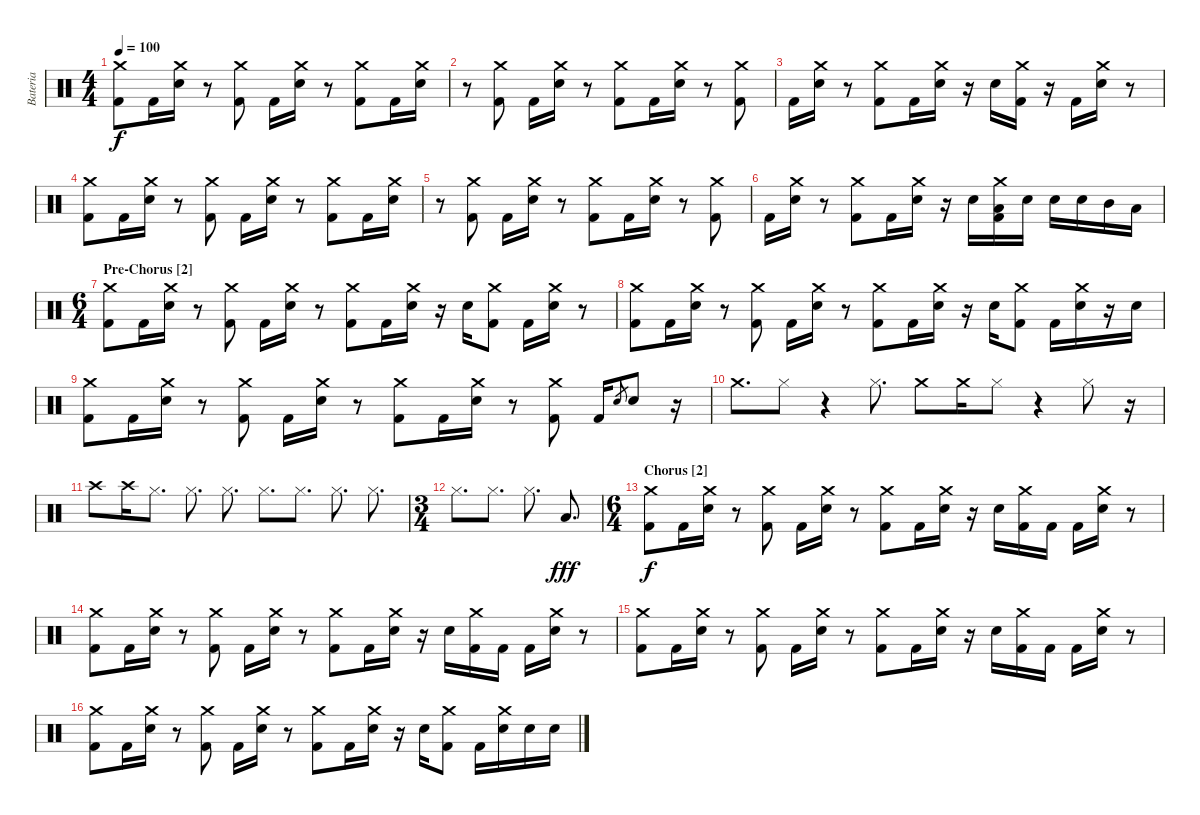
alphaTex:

\track ("Bateria" "Bateria") {instrument percussion}
\staff {score}
\articulation defaults
\ts (4 4)
\tempo 100
\clef neutral
\ks c
("Crash medium (hit)" "Kick (hit) 2").8{dy f} "Kick (hit) 2".16 ("Crash medium (hit)" "Electric Snare (hit)").16 r.8 ("Crash medium (hit)" "Kick (hit) 2").8 "Kick (hit) 2".16 ("Crash medium (hit)" "Electric Snare (hit)").16 r.8 ("Crash medium (hit)" "Kick (hit) 2").8 "Kick (hit) 2".16 ("Crash medium (hit)" "Electric Snare (hit)").16 |
r.8 ("Crash medium (hit)" "Kick (hit) 2").8 "Kick (hit) 2".16 ("Crash medium (hit)" "Electric Snare (hit)").16 r.8 ("Crash medium (hit)" "Kick (hit) 2").8 "Kick (hit) 2".16 ("Crash medium (hit)" "Electric Snare (hit)").16 r.8 ("Crash medium (hit)" "Kick (hit) 2").8 |
"Kick (hit) 2".16 ("Crash medium (hit)" "Electric Snare (hit)").16 r.8 ("Crash medium (hit)" "Kick (hit) 2").8 "Kick (hit) 2".16 ("Crash medium (hit)" "Electric Snare (hit)").16 r.16 "Electric Snare (hit)".16 ("Crash medium (hit)" "Kick (hit) 2").16 r.16 "Kick (hit) 2".16 ("Crash medium (hit)" "Electric Snare (hit)").16 r.8 |
("Crash medium (hit)" "Kick (hit) 2").8 "Kick (hit) 2".16 ("Crash medium (hit)" "Electric Snare (hit)").16 r.8 ("Crash medium (hit)" "Kick (hit) 2").8 "Kick (hit) 2".16 ("Crash medium (hit)" "Electric Snare (hit)").16 r.8 ("Crash medium (hit)" "Kick (hit) 2").8 "Kick (hit) 2".16 ("Crash medium (hit)" "Electric Snare (hit)").16 |
r.8 ("Crash medium (hit)" "Kick (hit) 2").8 "Kick (hit) 2".16 ("Crash medium (hit)" "Electric Snare (hit)").16 r.8 ("Crash medium (hit)" "Kick (hit) 2").8 "Kick (hit) 2".16 ("Crash medium (hit)" "Electric Snare (hit)").16 r.8 ("Crash medium (hit)" "Kick (hit) 2").8 |
"Kick (hit) 2".16 ("Crash medium (hit)" "Electric Snare (hit)").16 r.8 ("Crash medium (hit)" "Kick (hit) 2").8 "Kick (hit) 2".16 ("Crash medium (hit)" "Electric Snare (hit)").16 r.16 "Electric Snare (hit)".16 ("Crash medium (hit)" "Low Tom (hit)" "Kick (hit) 2").16 "Electric Snare (hit)".16 "Electric Snare (hit)".16 "Electric Snare (hit)".16 "Mid Tom (hit)".16 "Low Tom (hit)".16 |
\ts (6 4)
\section ("" "Pre-Chorus [2]")
("Crash medium (hit)" "Kick (hit) 2").8 "Kick (hit) 2".16 ("Crash medium (hit)" "Electric Snare (hit)").16 r.8 ("Crash medium (hit)" "Kick (hit) 2").8 "Kick (hit) 2".16 ("Crash medium (hit)" "Electric Snare (hit)").16 r.8 ("Crash medium (hit)" "Kick (hit) 2").8 "Kick (hit) 2".16 ("Crash medium (hit)" "Electric Snare (hit)").16 r.16 "Electric Snare (hit)".16 ("Crash medium (hit)" "Kick (hit) 2").8 "Kick (hit) 2".16 ("Crash medium (hit)" "Electric Snare (hit)").16 r.8 |
("Crash medium (hit)" "Kick (hit) 2").8 "Kick (hit) 2".16 ("Crash medium (hit)" "Electric Snare (hit)").16 r.8 ("Crash medium (hit)" "Kick (hit) 2").8 "Kick (hit) 2".16 ("Crash medium (hit)" "Electric Snare (hit)").16 r.8 ("Crash medium (hit)" "Kick (hit) 2").8 "Kick (hit) 2".16 ("Crash medium (hit)" "Electric Snare (hit)").16 r.16 "Electric Snare (hit)".16 ("Crash medium (hit)" "Kick (hit) 2").8 "Kick (hit) 2".16 ("Crash medium (hit)" "Electric Snare (hit)").16 r.16 "Electric Snare (hit)".16 |
("Crash medium (hit)" "Kick (hit) 2").8 "Kick (hit) 2".16 ("Crash medium (hit)" "Electric Snare (hit)").16 r.8 ("Crash medium (hit)" "Kick (hit) 2").8 "Kick (hit) 2".16 ("Crash medium (hit)" "Electric Snare (hit)").16 r.8 ("Crash medium (hit)" "Kick (hit) 2").8 "Kick (hit) 2".16 ("Crash medium (hit)" "Electric Snare (hit)").16 r.8 ("Crash medium (hit)" "Kick (hit) 2").8 "Kick (hit) 2".16 "Electric Snare (hit)".8{gr} "Electric Snare (hit)".8 r.16 |
"Crash medium (hit)".8{d} "Hi-Hat (closed)".8 r.4 "Hi-Hat (closed)".8{d} "Crash medium (hit)".8 "Crash medium (hit)".16 "Hi-Hat (closed)".8 r.4 "Hi-Hat (closed)".8 r.16 |
"Crash high (hit)".8 "Crash high (hit)".16 "Hi-Hat (closed)".8{d} "Hi-Hat (closed)".8{d} "Hi-Hat (closed)".8{d} "Hi-Hat (closed)".8{d} "Hi-Hat (closed)".8{d} "Hi-Hat (closed)".8{d} "Hi-Hat (closed)".8{d} |
\ts (3 4)
"Hi-Hat (closed)".8{d} "Hi-Hat (closed)".8{d} "Hi-Hat (closed)".8{d} "Low Tom (hit)".8{d dy fff} |
\ts (6 4)
\section ("" "Chorus [2]")
("Crash medium (hit)" "Kick (hit) 2").8{dy f} "Kick (hit) 2".16 ("Crash medium (hit)" "Electric Snare (hit)").16 r.8 ("Crash medium (hit)" "Kick (hit) 2").8 "Kick (hit) 2".16 ("Crash medium (hit)" "Electric Snare (hit)").16 r.8 ("Crash medium (hit)" "Kick (hit) 2").8 "Kick (hit) 2".16 ("Crash medium (hit)" "Electric Snare (hit)").16 r.16 "Electric Snare (hit)".16 ("Crash medium (hit)" "Kick (hit) 2").16 "Kick (hit) 2".16 "Kick (hit) 2".16 ("Crash medium (hit)" "Electric Snare (hit)").16 r.8 |
("Crash medium (hit)" "Kick (hit) 2").8 "Kick (hit) 2".16 ("Crash medium (hit)" "Electric Snare (hit)").16 r.8 ("Crash medium (hit)" "Kick (hit) 2").8 "Kick (hit) 2".16 ("Crash medium (hit)" "Electric Snare (hit)").16 r.8 ("Crash medium (hit)" "Kick (hit) 2").8 "Kick (hit) 2".16 ("Crash medium (hit)" "Electric Snare (hit)").16 r.16 "Electric Snare (hit)".16 ("Crash medium (hit)" "Kick (hit) 2").16 "Kick (hit) 2".16 "Kick (hit) 2".16 ("Crash medium (hit)" "Electric Snare (hit)").16 r.8 |
("Crash medium (hit)" "Kick (hit) 2").8 "Kick (hit) 2".16 ("Crash medium (hit)" "Electric Snare (hit)").16 r.8 ("Crash medium (hit)" "Kick (hit) 2").8 "Kick (hit) 2".16 ("Crash medium (hit)" "Electric Snare (hit)").16 r.8 ("Crash medium (hit)" "Kick (hit) 2").8 "Kick (hit) 2".16 ("Crash medium (hit)" "Electric Snare (hit)").16 r.16 "Electric Snare (hit)".16 ("Crash medium (hit)" "Kick (hit) 2").16 "Kick (hit) 2".16 "Kick (hit) 2".16 ("Crash medium (hit)" "Electric Snare (hit)").16 r.8 |
("Crash medium (hit)" "Kick (hit) 2").8 "Kick (hit) 2".16 ("Crash medium (hit)" "Electric Snare (hit)").16 r.8 ("Crash medium (hit)" "Kick (hit) 2").8 "Kick (hit) 2".16 ("Crash medium (hit)" "Electric Snare (hit)").16 r.8 ("Crash medium (hit)" "Kick (hit) 2").8 "Kick (hit) 2".16 ("Crash medium (hit)" "Electric Snare (hit)").16 r.16 "Electric Snare (hit)".16 ("Crash medium (hit)" "Kick (hit) 2").8 "Kick (hit) 2".16 ("Crash medium (hit)" "Electric Snare (hit)").16 "Electric Snare (hit)".16 "Electric Snare (hit)".16
